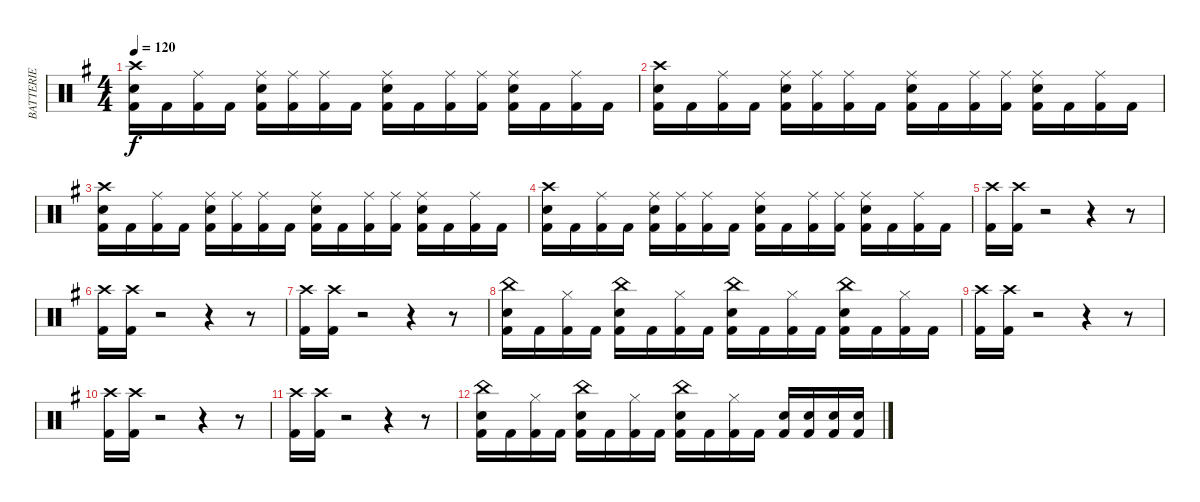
\track ("BATTERIE" "BATTERIE") {instrument percussion}
\staff {score}
\articulation defaults
\ts (4 4)
\tempo 120
\clef neutral
\ks g
("Crash high (hit)" "Snare (hit) 2" "Kick (hit) 2").16{dy f} "Kick (hit) 2".16 ("Ride (middle)" "Kick (hit) 2").16 "Kick (hit) 2".16 ("Ride (middle)" "Snare (hit) 2" "Kick (hit) 2").16 ("Ride (middle)" "Kick (hit) 2").16 ("Ride (middle)" "Kick (hit) 2").16 "Kick (hit) 2".16 ("Ride (middle)" "Snare (hit) 2" "Kick (hit) 2").16 "Kick (hit) 2".16 ("Ride (middle)" "Kick (hit) 2").16 ("Ride (middle)" "Kick (hit) 2").16 ("Ride (middle)" "Snare (hit) 2" "Kick (hit) 2").16 "Kick (hit) 2".16 ("Ride (middle)" "Kick (hit) 2").16 "Kick (hit) 2".16 |
("Crash high (hit)" "Snare (hit) 2" "Kick (hit) 2").16 "Kick (hit) 2".16 ("Ride (middle)" "Kick (hit) 2").16 "Kick (hit) 2".16 ("Ride (middle)" "Snare (hit) 2" "Kick (hit) 2").16 ("Ride (middle)" "Kick (hit) 2").16 ("Ride (middle)" "Kick (hit) 2").16 "Kick (hit) 2".16 ("Ride (middle)" "Snare (hit) 2" "Kick (hit) 2").16 "Kick (hit) 2".16 ("Ride (middle)" "Kick (hit) 2").16 ("Ride (middle)" "Kick (hit) 2").16 ("Ride (middle)" "Snare (hit) 2" "Kick (hit) 2").16 "Kick (hit) 2".16 ("Ride (middle)" "Kick (hit) 2").16 "Kick (hit) 2".16 |
("Crash high (hit)" "Snare (hit) 2" "Kick (hit) 2").16 "Kick (hit) 2".16 ("Ride (middle)" "Kick (hit) 2").16 "Kick (hit) 2".16 ("Ride (middle)" "Snare (hit) 2" "Kick (hit) 2").16 ("Ride (middle)" "Kick (hit) 2").16 ("Ride (middle)" "Kick (hit) 2").16 "Kick (hit) 2".16 ("Ride (middle)" "Snare (hit) 2" "Kick (hit) 2").16 "Kick (hit) 2".16 ("Ride (middle)" "Kick (hit) 2").16 ("Ride (middle)" "Kick (hit) 2").16 ("Ride (middle)" "Snare (hit) 2" "Kick (hit) 2").16 "Kick (hit) 2".16 ("Ride (middle)" "Kick (hit) 2").16 "Kick (hit) 2".16 |
("Crash high (hit)" "Snare (hit) 2" "Kick (hit) 2").16 "Kick (hit) 2".16 ("Ride (middle)" "Kick (hit) 2").16 "Kick (hit) 2".16 ("Ride (middle)" "Snare (hit) 2" "Kick (hit) 2").16 ("Ride (middle)" "Kick (hit) 2").16 ("Ride (middle)" "Kick (hit) 2").16 "Kick (hit) 2".16 ("Ride (middle)" "Snare (hit) 2" "Kick (hit) 2").16 "Kick (hit) 2".16 ("Ride (middle)" "Kick (hit) 2").16 ("Ride (middle)" "Kick (hit) 2").16 ("Ride (middle)" "Snare (hit) 2" "Kick (hit) 2").16 "Kick (hit) 2".16 ("Ride (middle)" "Kick (hit) 2").16 "Kick (hit) 2".16 |
("Crash high (hit)" "Kick (hit) 2").16 ("Crash high (hit)" "Kick (hit) 2").16 r.2 r.4 r.8 |
("Crash high (hit)" "Kick (hit) 2").16 ("Crash high (hit)" "Kick (hit) 2").16 r.2 r.4 r.8 |
("Crash high (hit)" "Kick (hit) 2").16 ("Crash high (hit)" "Kick (hit) 2").16 r.2 r.4 r.8 |
("China (hit)" "Snare (hit) 2" "Kick (hit) 2").16 "Kick (hit) 2".16 ("Hi-Hat (closed)" "Kick (hit) 2").16 "Kick (hit) 2".16 ("China (hit)" "Snare (hit) 2" "Kick (hit) 2").16 "Kick (hit) 2".16 ("Hi-Hat (closed)" "Kick (hit) 2").16 "Kick (hit) 2".16 ("China (hit)" "Snare (hit) 2" "Kick (hit) 2").16 "Kick (hit) 2".16 ("Hi-Hat (closed)" "Kick (hit) 2").16 "Kick (hit) 2".16 ("China (hit)" "Snare (hit) 2" "Kick (hit) 2").16 "Kick (hit) 2".16 ("Hi-Hat (closed)" "Kick (hit) 2").16 "Kick (hit) 2".16 |
("Crash high (hit)" "Kick (hit) 2").16 ("Crash high (hit)" "Kick (hit) 2").16 r.2 r.4 r.8 |
("Crash high (hit)" "Kick (hit) 2").16 ("Crash high (hit)" "Kick (hit) 2").16 r.2 r.4 r.8 |
("Crash high (hit)" "Kick (hit) 2").16 ("Crash high (hit)" "Kick (hit) 2").16 r.2 r.4 r.8 |
("China (hit)" "Snare (hit) 2" "Kick (hit) 2").16 "Kick (hit) 2".16 ("Hi-Hat (closed)" "Kick (hit) 2").16 "Kick (hit) 2".16 ("China (hit)" "Snare (hit) 2" "Kick (hit) 2").16 "Kick (hit) 2".16 ("Hi-Hat (closed)" "Kick (hit) 2").16 "Kick (hit) 2".16 ("China (hit)" "Snare (hit) 2" "Kick (hit) 2").16 "Kick (hit) 2".16 ("Hi-Hat (closed)" "Kick (hit) 2").16 "Kick (hit) 2".16 ("Snare (hit) 2" "Kick (hit) 2").16 ("Snare (hit) 2" "Kick (hit) 2").16 ("Snare (hit) 2" "Kick (hit) 2").16 ("Snare (hit) 2" "Kick (hit) 2").16
